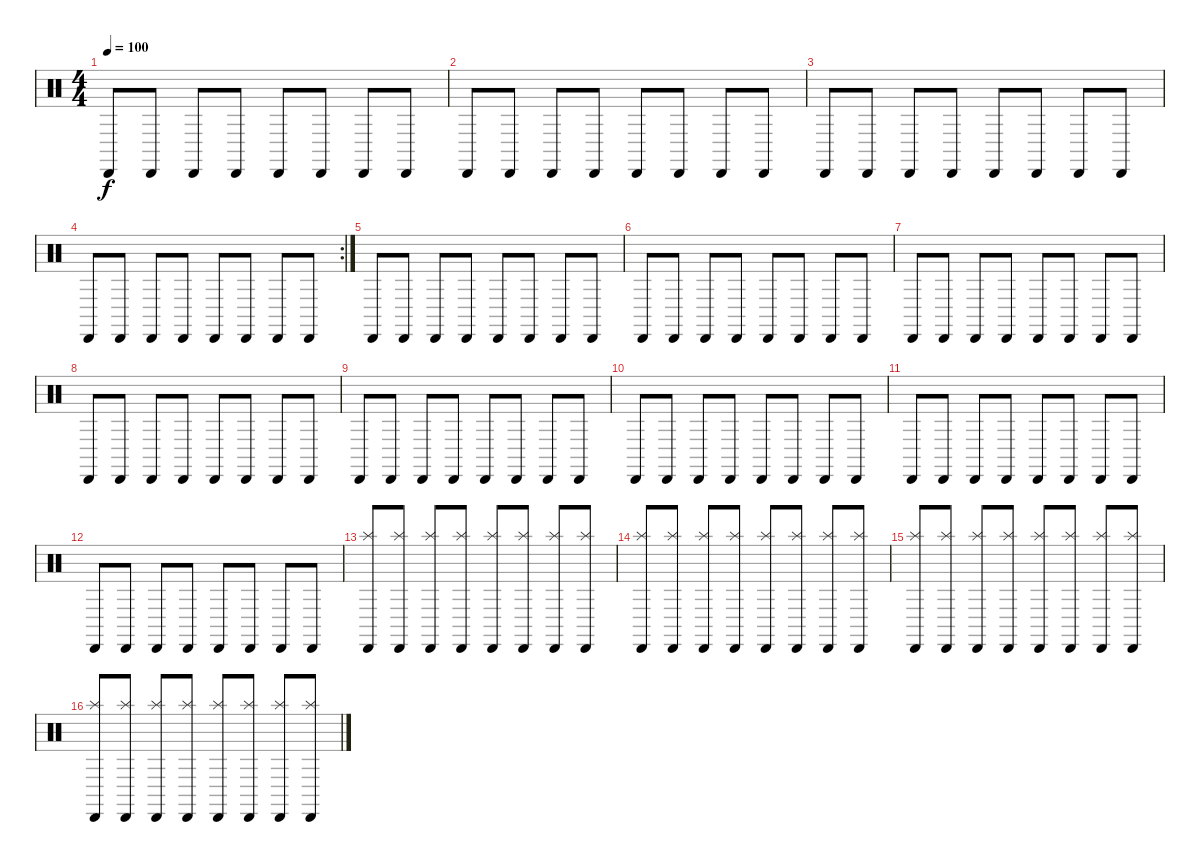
\track "" {instrument percussion}
\staff {score}
\articulation defaults
\ts (4 4)
\tempo 100
\clef neutral
\ks c "Cabasa (hit)".8{dy f} "Cabasa (hit)".8 "Cabasa (hit)".8 "Cabasa (hit)".8 "Cabasa (hit)".8 "Cabasa (hit)".8 "Cabasa (hit)".8 "Cabasa (hit)".8
|
"Cabasa (hit)".8 "Cabasa (hit)".8 "Cabasa (hit)".8 "Cabasa (hit)".8 "Cabasa (hit)".8 "Cabasa (hit)".8 "Cabasa (hit)".8 "Cabasa (hit)".8 |
"Cabasa (hit)".8 "Cabasa (hit)".8 "Cabasa (hit)".8 "Cabasa (hit)".8 "Cabasa (hit)".8 "Cabasa (hit)".8 "Cabasa (hit)".8 "Cabasa (hit)".8 |
\rc 2 "Cabasa (hit)".8 "Cabasa (hit)".8 "Cabasa (hit)".8 "Cabasa (hit)".8 "Cabasa (hit)".8 "Cabasa (hit)".8 "Cabasa (hit)".8 "Cabasa (hit)".8
|
"Cabasa (hit)".8 "Cabasa (hit)".8 "Cabasa (hit)".8 "Cabasa (hit)".8 "Cabasa (hit)".8 "Cabasa (hit)".8 "Cabasa (hit)".8 "Cabasa (hit)".8 |
"Cabasa (hit)".8 "Cabasa (hit)".8 "Cabasa (hit)".8 "Cabasa (hit)".8 "Cabasa (hit)".8 "Cabasa (hit)".8 "Cabasa (hit)".8 "Cabasa (hit)".8 |
"Cabasa (hit)".8 "Cabasa (hit)".8 "Cabasa (hit)".8 "Cabasa (hit)".8 "Cabasa (hit)".8 "Cabasa (hit)".8 "Cabasa (hit)".8 "Cabasa (hit)".8 |
"Cabasa (hit)".8 "Cabasa (hit)".8 "Cabasa (hit)".8 "Cabasa (hit)".8 "Cabasa (hit)".8 "Cabasa (hit)".8 "Cabasa (hit)".8 "Cabasa (hit)".8 |
"Cabasa (hit)".8 "Cabasa (hit)".8 "Cabasa (hit)".8 "Cabasa (hit)".8 "Cabasa (hit)".8 "Cabasa (hit)".8 "Cabasa (hit)".8 "Cabasa (hit)".8 |
"Cabasa (hit)".8 "Cabasa (hit)".8 "Cabasa (hit)".8 "Cabasa (hit)".8 "Cabasa (hit)".8 "Cabasa (hit)".8 "Cabasa (hit)".8 "Cabasa (hit)".8 |
"Cabasa (hit)".8 "Cabasa (hit)".8 "Cabasa (hit)".8 "Cabasa (hit)".8 "Cabasa (hit)".8 "Cabasa (hit)".8 "Cabasa (hit)".8 "Cabasa (hit)".8 |
"Cabasa (hit)".8 "Cabasa (hit)".8 "Cabasa (hit)".8 "Cabasa (hit)".8 "Cabasa (hit)".8 "Cabasa (hit)".8 "Cabasa (hit)".8 "Cabasa (hit)".8 |
("Cabasa (hit)" "Splash (hit)").8 ("Cabasa (hit)" "Splash (hit)").8 ("Cabasa (hit)" "Splash (hit)").8 ("Cabasa (hit)" "Splash (hit)").8 ("Cabasa (hit)" "Splash (hit)").8 ("Cabasa (hit)" "Splash (hit)").8 ("Cabasa (hit)" "Splash (hit)").8 ("Cabasa (hit)" "Splash (hit)").8 |
("Cabasa (hit)" "Splash (hit)").8 ("Cabasa (hit)" "Splash (hit)").8 ("Cabasa (hit)" "Splash (hit)").8 ("Cabasa (hit)" "Splash (hit)").8 ("Cabasa (hit)" "Splash (hit)").8 ("Cabasa (hit)" "Splash (hit)").8 ("Cabasa (hit)" "Splash (hit)").8 ("Cabasa (hit)" "Splash (hit)").8 |
("Cabasa (hit)" "Splash (hit)").8 ("Cabasa (hit)" "Splash (hit)").8 ("Cabasa (hit)" "Splash (hit)").8 ("Cabasa (hit)" "Splash (hit)").8 ("Cabasa (hit)" "Splash (hit)").8 ("Cabasa (hit)" "Splash (hit)").8 ("Cabasa (hit)" "Splash (hit)").8 ("Cabasa (hit)" "Splash (hit)").8 |
("Cabasa (hit)" "Splash (hit)").8 ("Cabasa (hit)" "Splash (hit)").8 ("Cabasa (hit)" "Splash (hit)").8 ("Cabasa (hit)" "Splash (hit)").8 ("Cabasa (hit)" "Splash (hit)").8 ("Cabasa (hit)" "Splash (hit)").8 ("Cabasa (hit)" "Splash (hit)").8 ("Cabasa (hit)" "Splash (hit)").8
